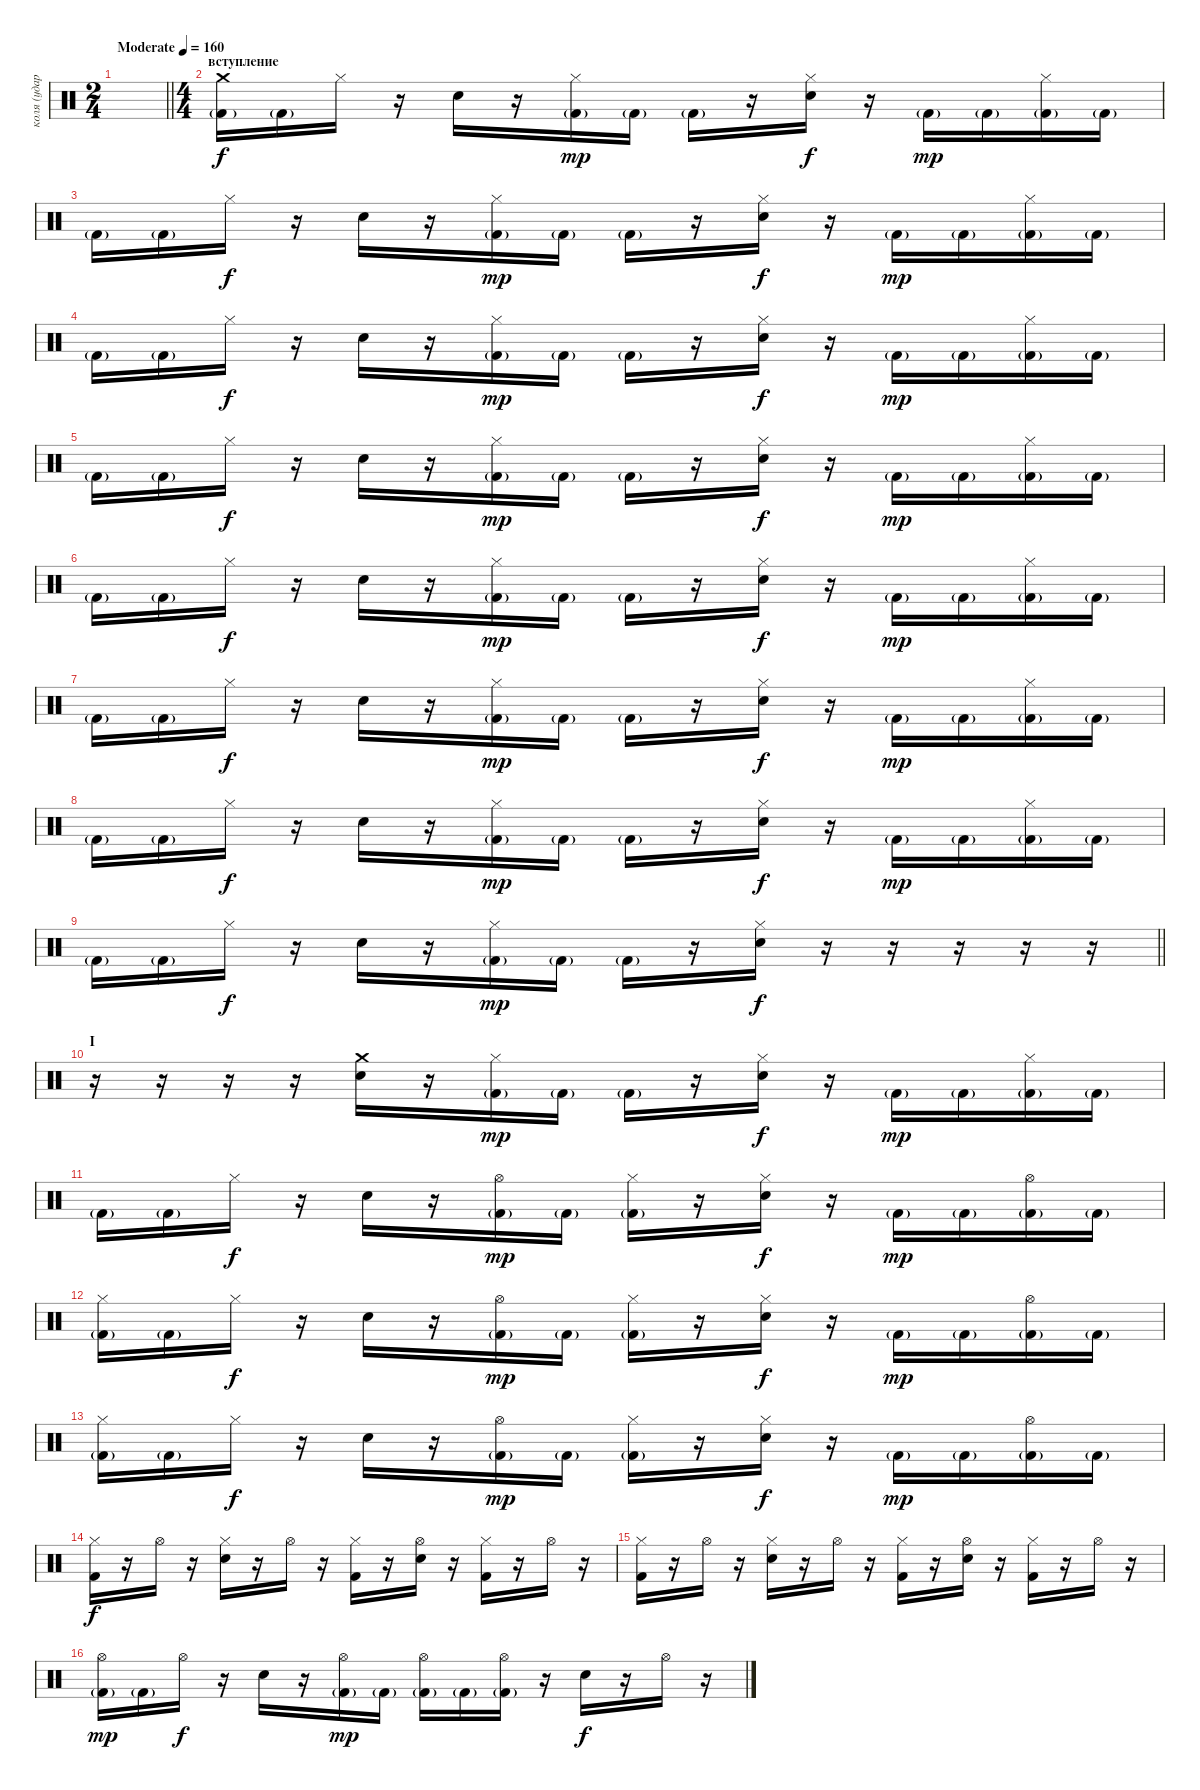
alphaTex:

\track ("коля (ударные)" "коля (удар") {instrument percussion}
\staff {score}
\articulation defaults
\ts (2 4)
\tempo (160 "Moderate")
\clef neutral
\barLineRight lightlight
\ks c
|
\ts (4 4)
\section ("" "вступление")
("Kick (hit) 2"{g} "Crash medium (hit)").16 "Kick (hit) 2"{g}.16 "Hi-Hat (closed)".16{dy f} r.16 "Snare (hit) 2".16 r.16 ("Kick (hit) 2"{g} "Hi-Hat (closed)").16{dy mp} "Kick (hit) 2"{g}.16 "Kick (hit) 2"{g}.16 r.16 ("Snare (hit) 2" "Hi-Hat (closed)").16{dy f} r.16 "Kick (hit) 2"{g}.16{dy mp} "Kick (hit) 2"{g}.16 ("Kick (hit) 2"{g} "Hi-Hat (closed)").16 "Kick (hit) 2"{g}.16 |
"Kick (hit) 2"{g}.16 "Kick (hit) 2"{g}.16 "Hi-Hat (closed)".16{dy f} r.16 "Snare (hit) 2".16 r.16 ("Kick (hit) 2"{g} "Hi-Hat (closed)").16{dy mp} "Kick (hit) 2"{g}.16 "Kick (hit) 2"{g}.16 r.16 ("Snare (hit) 2" "Hi-Hat (closed)").16{dy f} r.16 "Kick (hit) 2"{g}.16{dy mp} "Kick (hit) 2"{g}.16 ("Kick (hit) 2"{g} "Hi-Hat (closed)").16 "Kick (hit) 2"{g}.16 |
"Kick (hit) 2"{g}.16 "Kick (hit) 2"{g}.16 "Hi-Hat (closed)".16{dy f} r.16 "Snare (hit) 2".16 r.16 ("Kick (hit) 2"{g} "Hi-Hat (closed)").16{dy mp} "Kick (hit) 2"{g}.16 "Kick (hit) 2"{g}.16 r.16 ("Snare (hit) 2" "Hi-Hat (closed)").16{dy f} r.16 "Kick (hit) 2"{g}.16{dy mp} "Kick (hit) 2"{g}.16 ("Kick (hit) 2"{g} "Hi-Hat (closed)").16 "Kick (hit) 2"{g}.16 |
"Kick (hit) 2"{g}.16 "Kick (hit) 2"{g}.16 "Hi-Hat (closed)".16{dy f} r.16 "Snare (hit) 2".16 r.16 ("Kick (hit) 2"{g} "Hi-Hat (closed)").16{dy mp} "Kick (hit) 2"{g}.16 "Kick (hit) 2"{g}.16 r.16 ("Snare (hit) 2" "Hi-Hat (closed)").16{dy f} r.16 "Kick (hit) 2"{g}.16{dy mp} "Kick (hit) 2"{g}.16 ("Kick (hit) 2"{g} "Hi-Hat (closed)").16 "Kick (hit) 2"{g}.16 |
"Kick (hit) 2"{g}.16 "Kick (hit) 2"{g}.16 "Hi-Hat (closed)".16{dy f} r.16 "Snare (hit) 2".16 r.16 ("Kick (hit) 2"{g} "Hi-Hat (closed)").16{dy mp} "Kick (hit) 2"{g}.16 "Kick (hit) 2"{g}.16 r.16 ("Snare (hit) 2" "Hi-Hat (closed)").16{dy f} r.16 "Kick (hit) 2"{g}.16{dy mp} "Kick (hit) 2"{g}.16 ("Kick (hit) 2"{g} "Hi-Hat (closed)").16 "Kick (hit) 2"{g}.16 |
"Kick (hit) 2"{g}.16 "Kick (hit) 2"{g}.16 "Hi-Hat (closed)".16{dy f} r.16 "Snare (hit) 2".16 r.16 ("Kick (hit) 2"{g} "Hi-Hat (closed)").16{dy mp} "Kick (hit) 2"{g}.16 "Kick (hit) 2"{g}.16 r.16 ("Snare (hit) 2" "Hi-Hat (closed)").16{dy f} r.16 "Kick (hit) 2"{g}.16{dy mp} "Kick (hit) 2"{g}.16 ("Kick (hit) 2"{g} "Hi-Hat (closed)").16 "Kick (hit) 2"{g}.16 |
"Kick (hit) 2"{g}.16 "Kick (hit) 2"{g}.16 "Hi-Hat (closed)".16{dy f} r.16 "Snare (hit) 2".16 r.16 ("Kick (hit) 2"{g} "Hi-Hat (closed)").16{dy mp} "Kick (hit) 2"{g}.16 "Kick (hit) 2"{g}.16 r.16 ("Snare (hit) 2" "Hi-Hat (closed)").16{dy f} r.16 "Kick (hit) 2"{g}.16{dy mp} "Kick (hit) 2"{g}.16 ("Kick (hit) 2"{g} "Hi-Hat (closed)").16 "Kick (hit) 2"{g}.16 |
\barLineRight lightlight "Kick (hit) 2"{g}.16 "Kick (hit) 2"{g}.16 "Hi-Hat (closed)".16{dy f}
r.16 "Snare (hit) 2".16 r.16 ("Kick (hit) 2"{g} "Hi-Hat (closed)").16{dy mp} "Kick (hit) 2"{g}.16 "Kick (hit) 2"{g}.16 r.16 ("Snare (hit) 2" "Hi-Hat (closed)").16{dy f} r.16 r.16 r.16 r.16 r.16 |
\section ("" "I")
r.16 r.16 r.16 r.16 ("Snare (hit) 2" "Crash medium (hit)").16 r.16 ("Kick (hit) 2"{g} "Hi-Hat (closed)").16{dy mp} "Kick (hit) 2"{g}.16 "Kick (hit) 2"{g}.16 r.16 ("Snare (hit) 2" "Hi-Hat (closed)").16{dy f} r.16 "Kick (hit) 2"{g}.16{dy mp} "Kick (hit) 2"{g}.16 ("Kick (hit) 2"{g} "Hi-Hat (closed)").16 "Kick (hit) 2"{g}.16 |
"Kick (hit) 2"{g}.16 "Kick (hit) 2"{g}.16 "Hi-Hat (closed)".16{dy f} r.16 "Snare (hit) 2".16 r.16 ("Kick (hit) 2"{g} "Hi-Hat (open)").16{dy mp} "Kick (hit) 2"{g}.16 ("Kick (hit) 2"{g} "Hi-Hat (closed)").16 r.16 ("Snare (hit) 2" "Hi-Hat (closed)").16{dy f} r.16 "Kick (hit) 2"{g}.16{dy mp} "Kick (hit) 2"{g}.16 ("Kick (hit) 2"{g} "Hi-Hat (open)").16 "Kick (hit) 2"{g}.16 |
("Kick (hit) 2"{g} "Hi-Hat (closed)").16 "Kick (hit) 2"{g}.16 "Hi-Hat (closed)".16{dy f} r.16 "Snare (hit) 2".16 r.16 ("Kick (hit) 2"{g} "Hi-Hat (open)").16{dy mp} "Kick (hit) 2"{g}.16 ("Kick (hit) 2"{g} "Hi-Hat (closed)").16 r.16 ("Snare (hit) 2" "Hi-Hat (closed)").16{dy f} r.16 "Kick (hit) 2"{g}.16{dy mp} "Kick (hit) 2"{g}.16 ("Kick (hit) 2"{g} "Hi-Hat (open)").16 "Kick (hit) 2"{g}.16 |
("Kick (hit) 2"{g} "Hi-Hat (closed)").16 "Kick (hit) 2"{g}.16 "Hi-Hat (closed)".16{dy f} r.16 "Snare (hit) 2".16 r.16 ("Kick (hit) 2"{g} "Hi-Hat (open)").16{dy mp} "Kick (hit) 2"{g}.16 ("Kick (hit) 2"{g} "Hi-Hat (closed)").16 r.16 ("Snare (hit) 2" "Hi-Hat (closed)").16{dy f} r.16 "Kick (hit) 2"{g}.16{dy mp} "Kick (hit) 2"{g}.16 ("Kick (hit) 2"{g} "Hi-Hat (open)").16 "Kick (hit) 2"{g}.16 |
("Kick (hit) 2" "Hi-Hat (closed)").16{dy f} r.16 "Hi-Hat (open)".16 r.16 ("Snare (hit) 2" "Hi-Hat (closed)").16 r.16 "Hi-Hat (open)".16 r.16 ("Kick (hit) 2" "Hi-Hat (closed)").16 r.16 ("Snare (hit) 2" "Hi-Hat (open)").16 r.16 ("Kick (hit) 2" "Hi-Hat (closed)").16 r.16 "Hi-Hat (open)".16 r.16 |
("Kick (hit) 2" "Hi-Hat (closed)").16 r.16 "Hi-Hat (open)".16 r.16 ("Snare (hit) 2" "Hi-Hat (closed)").16 r.16 "Hi-Hat (open)".16 r.16 ("Kick (hit) 2" "Hi-Hat (closed)").16 r.16 ("Snare (hit) 2" "Hi-Hat (open)").16 r.16 ("Kick (hit) 2" "Hi-Hat (closed)").16 r.16 "Hi-Hat (open)".16 r.16 |
("Kick (hit) 2"{g} "Hi-Hat (open)").16{dy mp} "Kick (hit) 2"{g}.16 "Hi-Hat (open)".16{dy f} r.16 "Snare (hit) 2".16 r.16 ("Kick (hit) 2"{g} "Hi-Hat (open)").16{dy mp} "Kick (hit) 2"{g}.16 ("Kick (hit) 2"{g} "Hi-Hat (open)").16 "Kick (hit) 2"{g}.16 ("Kick (hit) 2"{g} "Hi-Hat (open)").16 r.16 "Snare (hit) 2".16{dy f} r.16 "Hi-Hat (open)".16 r.16
